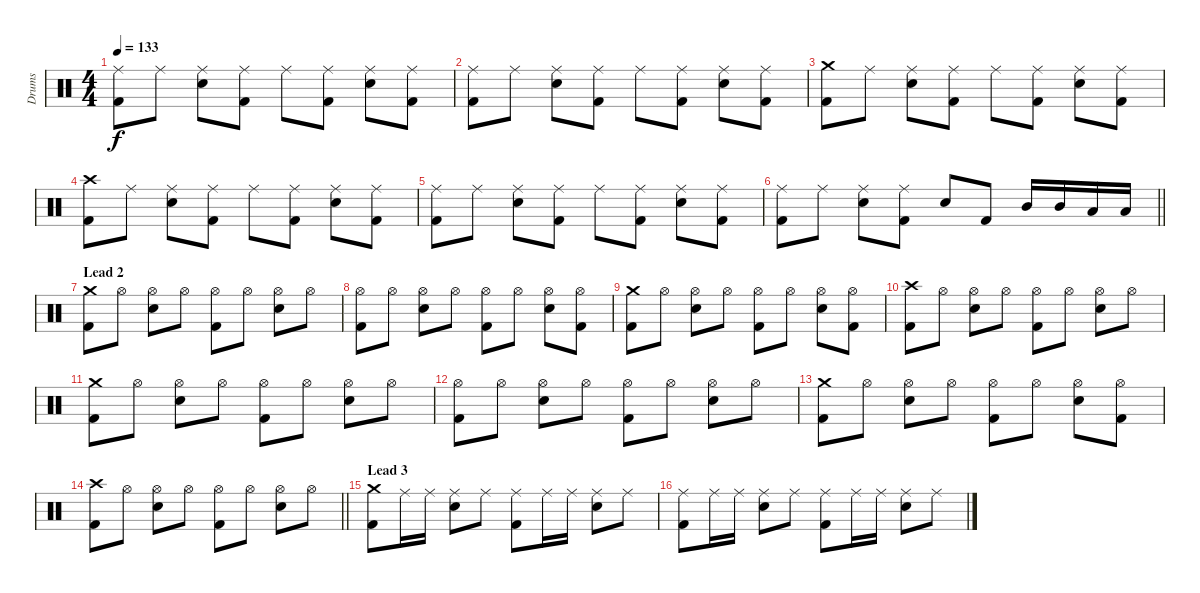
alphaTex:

\track ("Drums" "Drums") {instrument percussion}
\staff {score}
\articulation defaults
\ts (4 4)
\tempo 133
\clef neutral
\ks c
("Ride (middle)" "Kick (hit) 2").8{dy f} "Ride (middle)".8 ("Ride (middle)" "Snare (hit) 2").8 ("Ride (middle)" "Kick (hit) 2").8 "Ride (middle)".8 ("Ride (middle)" "Kick (hit) 2").8 ("Ride (middle)" "Snare (hit) 2").8 ("Ride (middle)" "Kick (hit) 2").8 |
("Ride (middle)" "Kick (hit) 2").8 "Ride (middle)".8 ("Ride (middle)" "Snare (hit) 2").8 ("Ride (middle)" "Kick (hit) 2").8 "Ride (middle)".8 ("Ride (middle)" "Kick (hit) 2").8 ("Ride (middle)" "Snare (hit) 2").8 ("Ride (middle)" "Kick (hit) 2").8 |
("Crash medium (hit)" "Kick (hit) 2").8 "Ride (middle)".8 ("Ride (middle)" "Snare (hit) 2").8 ("Ride (middle)" "Kick (hit) 2").8 "Ride (middle)".8 ("Ride (middle)" "Kick (hit) 2").8 ("Ride (middle)" "Snare (hit) 2").8 ("Ride (middle)" "Kick (hit) 2").8 |
("Crash high (hit)" "Kick (hit) 2").8 "Ride (middle)".8 ("Ride (middle)" "Snare (hit) 2").8 ("Ride (middle)" "Kick (hit) 2").8 "Ride (middle)".8 ("Ride (middle)" "Kick (hit) 2").8 ("Ride (middle)" "Snare (hit) 2").8 ("Ride (middle)" "Kick (hit) 2").8 |
("Ride (middle)" "Kick (hit) 2").8 "Ride (middle)".8 ("Ride (middle)" "Snare (hit) 2").8 ("Ride (middle)" "Kick (hit) 2").8 "Ride (middle)".8 ("Ride (middle)" "Kick (hit) 2").8 ("Ride (middle)" "Snare (hit) 2").8 ("Ride (middle)" "Kick (hit) 2").8 |
\barLineRight lightlight
("Ride (middle)" "Kick (hit) 2").8 "Ride (middle)".8 ("Ride (middle)" "Snare (hit) 2").8 ("Ride (middle)" "Kick (hit) 2").8 "Snare (hit) 2".8 "Kick (hit) 2".8 "Mid Tom (hit)".16 "Mid Tom (hit)".16 "Low Tom (hit)".16 "Low Tom (hit)".16 |
\section ("" "Lead 2")
("Crash medium (hit)" "Kick (hit) 2").8 "Hi-Hat (open)".8 ("Hi-Hat (open)" "Snare (hit) 2").8 "Hi-Hat (open)".8 ("Hi-Hat (open)" "Kick (hit) 2").8 "Hi-Hat (open)".8 ("Hi-Hat (open)" "Snare (hit) 2").8 "Hi-Hat (open)".8 |
("Hi-Hat (open)" "Kick (hit) 2").8 "Hi-Hat (open)".8 ("Hi-Hat (open)" "Snare (hit) 2").8 "Hi-Hat (open)".8 ("Hi-Hat (open)" "Kick (hit) 2").8 "Hi-Hat (open)".8 ("Hi-Hat (open)" "Snare (hit) 2").8 ("Hi-Hat (open)" "Kick (hit) 2").8 |
("Crash medium (hit)" "Kick (hit) 2").8 "Hi-Hat (open)".8 ("Hi-Hat (open)" "Snare (hit) 2").8 "Hi-Hat (open)".8 ("Hi-Hat (open)" "Kick (hit) 2").8 "Hi-Hat (open)".8 ("Hi-Hat (open)" "Snare (hit) 2").8 ("Hi-Hat (open)" "Kick (hit) 2").8 |
("Crash high (hit)" "Kick (hit) 2").8 "Hi-Hat (open)".8 ("Hi-Hat (open)" "Snare (hit) 2").8 "Hi-Hat (open)".8 ("Hi-Hat (open)" "Kick (hit) 2").8 "Hi-Hat (open)".8 ("Hi-Hat (open)" "Snare (hit) 2").8 "Hi-Hat (open)".8 |
("Crash medium (hit)" "Kick (hit) 2").8 "Hi-Hat (open)".8 ("Hi-Hat (open)" "Snare (hit) 2").8 "Hi-Hat (open)".8 ("Hi-Hat (open)" "Kick (hit) 2").8 "Hi-Hat (open)".8 ("Hi-Hat (open)" "Snare (hit) 2").8 "Hi-Hat (open)".8 |
("Hi-Hat (open)" "Kick (hit) 2").8 "Hi-Hat (open)".8 ("Hi-Hat (open)" "Snare (hit) 2").8 "Hi-Hat (open)".8 ("Hi-Hat (open)" "Kick (hit) 2").8 "Hi-Hat (open)".8 ("Hi-Hat (open)" "Snare (hit) 2").8 "Hi-Hat (open)".8 |
("Crash medium (hit)" "Kick (hit) 2").8 "Hi-Hat (open)".8 ("Hi-Hat (open)" "Snare (hit) 2").8 "Hi-Hat (open)".8 ("Hi-Hat (open)" "Kick (hit) 2").8 "Hi-Hat (open)".8 ("Hi-Hat (open)" "Snare (hit) 2").8 ("Hi-Hat (open)" "Kick (hit) 2").8 |
\barLineRight lightlight
("Crash high (hit)" "Kick (hit) 2").8 "Hi-Hat (open)".8 ("Hi-Hat (open)" "Snare (hit) 2").8 "Hi-Hat (open)".8 ("Hi-Hat (open)" "Kick (hit) 2").8 "Hi-Hat (open)".8 ("Hi-Hat (open)" "Snare (hit) 2").8 "Hi-Hat (open)".8 |
\section ("" "Lead 3")
("Crash medium (hit)" "Kick (hit) 2").8 "Ride (middle)".16 "Ride (middle)".16 ("Ride (middle)" "Snare (hit) 2").8 "Ride (middle)".8 ("Ride (middle)" "Kick (hit) 2").8 "Ride (middle)".16 "Ride (middle)".16 ("Ride (middle)" "Snare (hit) 2").8 "Ride (middle)".8 |
("Ride (middle)" "Kick (hit) 2").8 "Ride (middle)".16 "Ride (middle)".16 ("Ride (middle)" "Snare (hit) 2").8 "Ride (middle)".8 ("Ride (middle)" "Kick (hit) 2").8 "Ride (middle)".16 "Ride (middle)".16 ("Ride (middle)" "Snare (hit) 2").8 "Ride (middle)".8
